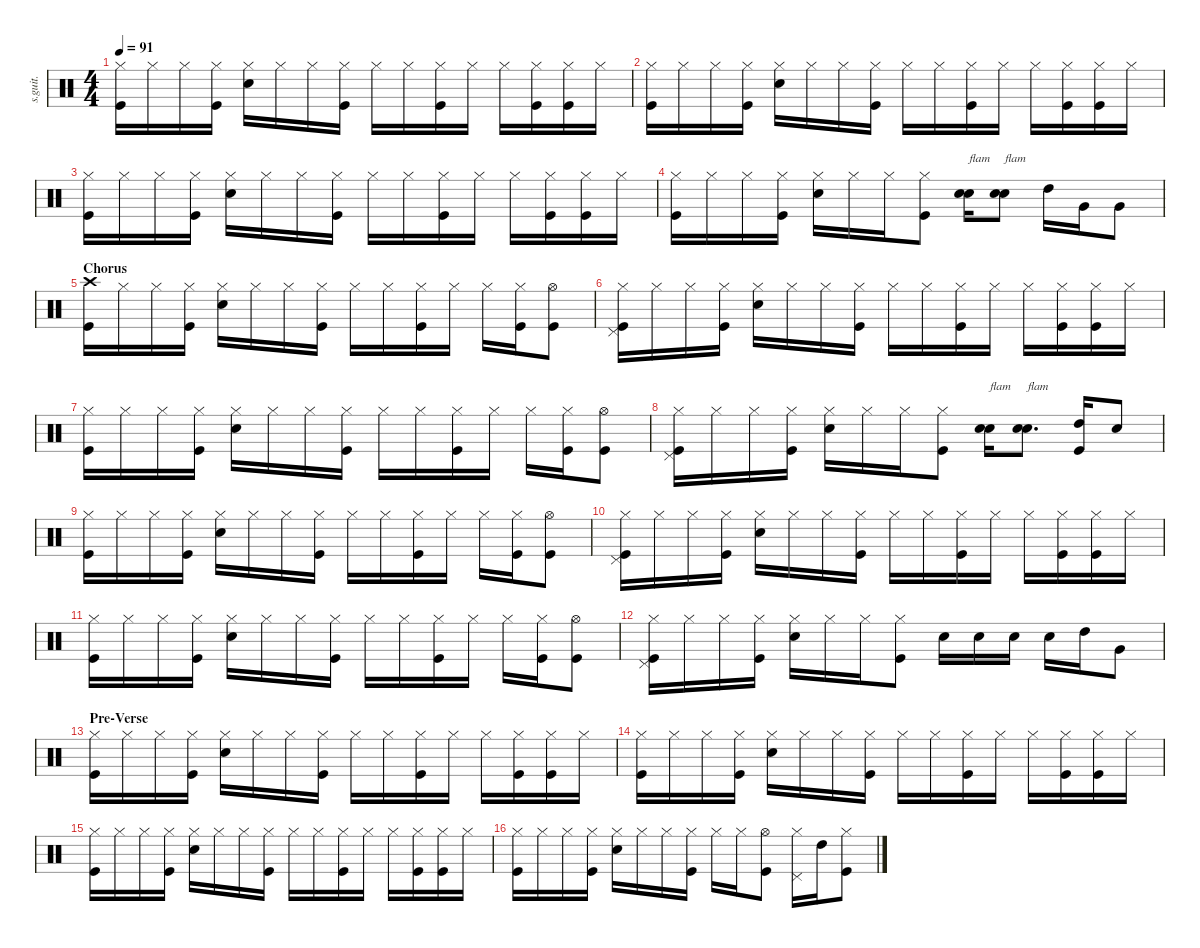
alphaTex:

\defaultSystemsLayout 4
\hideDynamics
\bracketExtendMode nobrackets
\track ("Chad" "s.guit.") {instrument percussion}
\staff {score}
\articulation defaults
\ts (4 4)
\tempo 91
\clef neutral
\ks c
("Hi-Hat (closed)" "Kick (hit)").16{dy f} "Hi-Hat (closed)".16 "Hi-Hat (closed)".16 ("Hi-Hat (closed)" "Kick (hit)").16 ("Hi-Hat (closed)" "Snare (hit) 2").16 "Hi-Hat (closed)".16 "Hi-Hat (closed)".16 ("Hi-Hat (closed)" "Kick (hit)").16 "Hi-Hat (closed)".16 "Hi-Hat (closed)".16 ("Hi-Hat (closed)" "Kick (hit)").16 "Hi-Hat (closed)".16 "Hi-Hat (closed)".16 ("Hi-Hat (closed)" "Kick (hit)").16 ("Hi-Hat (closed)" "Kick (hit)").16 "Hi-Hat (closed)".16 |
("Hi-Hat (closed)" "Kick (hit)").16 "Hi-Hat (closed)".16 "Hi-Hat (closed)".16 ("Hi-Hat (closed)" "Kick (hit)").16 ("Hi-Hat (closed)" "Snare (hit) 2").16 "Hi-Hat (closed)".16 "Hi-Hat (closed)".16 ("Hi-Hat (closed)" "Kick (hit)").16 "Hi-Hat (closed)".16 "Hi-Hat (closed)".16 ("Hi-Hat (closed)" "Kick (hit)").16 "Hi-Hat (closed)".16 "Hi-Hat (closed)".16 ("Hi-Hat (closed)" "Kick (hit)").16 ("Hi-Hat (closed)" "Kick (hit)").16 "Hi-Hat (closed)".16 |
("Hi-Hat (closed)" "Kick (hit)").16 "Hi-Hat (closed)".16 "Hi-Hat (closed)".16 ("Hi-Hat (closed)" "Kick (hit)").16 ("Hi-Hat (closed)" "Snare (hit) 2").16 "Hi-Hat (closed)".16 "Hi-Hat (closed)".16 ("Hi-Hat (closed)" "Kick (hit)").16 "Hi-Hat (closed)".16 "Hi-Hat (closed)".16 ("Hi-Hat (closed)" "Kick (hit)").16 "Hi-Hat (closed)".16 "Hi-Hat (closed)".16 ("Hi-Hat (closed)" "Kick (hit)").16 ("Hi-Hat (closed)" "Kick (hit)").16 "Hi-Hat (closed)".16 |
("Hi-Hat (closed)" "Kick (hit)").16 "Hi-Hat (closed)".16 "Hi-Hat (closed)".16 ("Hi-Hat (closed)" "Kick (hit)").16 ("Hi-Hat (closed)" "Snare (hit) 2").16 "Hi-Hat (closed)".16 "Hi-Hat (closed)".16 ("Hi-Hat (closed)" "Kick (hit)").8 ("Snare (hit) 2" "Snare (hit) 2").16{txt "flam"} ("Snare (hit) 2" "Snare (hit) 2").8{txt "flam"} "High Tom (hit)".16 "Very Low Tom (hit)".16 "Very Low Tom (hit)".8 |
\section ("" "Chorus")
("Crash high (hit)" "Kick (hit)").16 "Hi-Hat (closed)".16 "Hi-Hat (closed)".16 ("Hi-Hat (closed)" "Kick (hit)").16 ("Hi-Hat (closed)" "Snare (hit) 2").16 "Hi-Hat (closed)".16 "Hi-Hat (closed)".16 ("Hi-Hat (closed)" "Kick (hit)").16 "Hi-Hat (closed)".16 "Hi-Hat (closed)".16 ("Hi-Hat (closed)" "Kick (hit)").16 "Hi-Hat (closed)".16 "Hi-Hat (closed)".16 ("Hi-Hat (closed)" "Kick (hit)").16 ("Hi-Hat (open)" "Kick (hit)").8 |
("Hi-Hat (closed)" "Kick (hit)" "Pedal Hi-Hat (hit)").16 "Hi-Hat (closed)".16 "Hi-Hat (closed)".16 ("Hi-Hat (closed)" "Kick (hit)").16 ("Hi-Hat (closed)" "Snare (hit) 2").16 "Hi-Hat (closed)".16 "Hi-Hat (closed)".16 ("Hi-Hat (closed)" "Kick (hit)").16 "Hi-Hat (closed)".16 "Hi-Hat (closed)".16 ("Hi-Hat (closed)" "Kick (hit)").16 "Hi-Hat (closed)".16 "Hi-Hat (closed)".16 ("Hi-Hat (closed)" "Kick (hit)").16 ("Hi-Hat (closed)" "Kick (hit)").16 "Hi-Hat (closed)".16 |
("Hi-Hat (closed)" "Kick (hit)").16 "Hi-Hat (closed)".16 "Hi-Hat (closed)".16 ("Hi-Hat (closed)" "Kick (hit)").16 ("Hi-Hat (closed)" "Snare (hit) 2").16 "Hi-Hat (closed)".16 "Hi-Hat (closed)".16 ("Hi-Hat (closed)" "Kick (hit)").16 "Hi-Hat (closed)".16 "Hi-Hat (closed)".16 ("Hi-Hat (closed)" "Kick (hit)").16 "Hi-Hat (closed)".16 "Hi-Hat (closed)".16 ("Hi-Hat (closed)" "Kick (hit)").16 ("Hi-Hat (open)" "Kick (hit)").8 |
("Hi-Hat (closed)" "Kick (hit)" "Pedal Hi-Hat (hit)").16 "Hi-Hat (closed)".16 "Hi-Hat (closed)".16 ("Hi-Hat (closed)" "Kick (hit)").16 ("Hi-Hat (closed)" "Snare (hit) 2").16 "Hi-Hat (closed)".16 "Hi-Hat (closed)".16 ("Hi-Hat (closed)" "Kick (hit)").8 ("Snare (hit) 2" "Snare (hit) 2").16{txt "flam"} ("Snare (hit) 2" "Snare (hit) 2").8{d txt "flam"} ("High Tom (hit)" "Kick (hit)").16 "Snare (hit) 2".8 |
("Hi-Hat (closed)" "Kick (hit)").16 "Hi-Hat (closed)".16 "Hi-Hat (closed)".16 ("Hi-Hat (closed)" "Kick (hit)").16 ("Hi-Hat (closed)" "Snare (hit) 2").16 "Hi-Hat (closed)".16 "Hi-Hat (closed)".16 ("Hi-Hat (closed)" "Kick (hit)").16 "Hi-Hat (closed)".16 "Hi-Hat (closed)".16 ("Hi-Hat (closed)" "Kick (hit)").16 "Hi-Hat (closed)".16 "Hi-Hat (closed)".16 ("Hi-Hat (closed)" "Kick (hit)").16 ("Hi-Hat (open)" "Kick (hit)").8 |
("Hi-Hat (closed)" "Kick (hit)" "Pedal Hi-Hat (hit)").16 "Hi-Hat (closed)".16 "Hi-Hat (closed)".16 ("Hi-Hat (closed)" "Kick (hit)").16 ("Hi-Hat (closed)" "Snare (hit) 2").16 "Hi-Hat (closed)".16 "Hi-Hat (closed)".16 ("Hi-Hat (closed)" "Kick (hit)").16 "Hi-Hat (closed)".16 "Hi-Hat (closed)".16 ("Hi-Hat (closed)" "Kick (hit)").16 "Hi-Hat (closed)".16 "Hi-Hat (closed)".16 ("Hi-Hat (closed)" "Kick (hit)").16 ("Hi-Hat (closed)" "Kick (hit)").16 "Hi-Hat (closed)".16 |
("Hi-Hat (closed)" "Kick (hit)").16 "Hi-Hat (closed)".16 "Hi-Hat (closed)".16 ("Hi-Hat (closed)" "Kick (hit)").16 ("Hi-Hat (closed)" "Snare (hit) 2").16 "Hi-Hat (closed)".16 "Hi-Hat (closed)".16 ("Hi-Hat (closed)" "Kick (hit)").16 "Hi-Hat (closed)".16 "Hi-Hat (closed)".16 ("Hi-Hat (closed)" "Kick (hit)").16 "Hi-Hat (closed)".16 "Hi-Hat (closed)".16 ("Hi-Hat (closed)" "Kick (hit)").16 ("Hi-Hat (open)" "Kick (hit)").8 |
("Hi-Hat (closed)" "Kick (hit)" "Pedal Hi-Hat (hit)").16 "Hi-Hat (closed)".16 "Hi-Hat (closed)".16 ("Hi-Hat (closed)" "Kick (hit)").16 ("Hi-Hat (closed)" "Snare (hit) 2").16 "Hi-Hat (closed)".16 "Hi-Hat (closed)".16 ("Hi-Hat (closed)" "Kick (hit)").8 "Snare (hit) 2".16 "Snare (hit) 2".16 "Snare (hit) 2".16 "Snare (hit) 2".16 "High Tom (hit)".16 "Very Low Tom (hit)".8 |
\section ("" "Pre-Verse")
("Hi-Hat (closed)" "Kick (hit)").16 "Hi-Hat (closed)".16 "Hi-Hat (closed)".16 ("Hi-Hat (closed)" "Kick (hit)").16 ("Hi-Hat (closed)" "Snare (hit) 2").16 "Hi-Hat (closed)".16 "Hi-Hat (closed)".16 ("Hi-Hat (closed)" "Kick (hit)").16 "Hi-Hat (closed)".16 "Hi-Hat (closed)".16 ("Hi-Hat (closed)" "Kick (hit)").16 "Hi-Hat (closed)".16 "Hi-Hat (closed)".16 ("Hi-Hat (closed)" "Kick (hit)").16 ("Hi-Hat (closed)" "Kick (hit)").16 "Hi-Hat (closed)".16 |
("Hi-Hat (closed)" "Kick (hit)").16 "Hi-Hat (closed)".16 "Hi-Hat (closed)".16 ("Hi-Hat (closed)" "Kick (hit)").16 ("Hi-Hat (closed)" "Snare (hit) 2").16 "Hi-Hat (closed)".16 "Hi-Hat (closed)".16 ("Hi-Hat (closed)" "Kick (hit)").16 "Hi-Hat (closed)".16 "Hi-Hat (closed)".16 ("Hi-Hat (closed)" "Kick (hit)").16 "Hi-Hat (closed)".16 "Hi-Hat (closed)".16 ("Hi-Hat (closed)" "Kick (hit)").16 ("Hi-Hat (closed)" "Kick (hit)").16 "Hi-Hat (closed)".16 |
("Hi-Hat (closed)" "Kick (hit)").16 "Hi-Hat (closed)".16 "Hi-Hat (closed)".16 ("Hi-Hat (closed)" "Kick (hit)").16 ("Hi-Hat (closed)" "Snare (hit) 2").16 "Hi-Hat (closed)".16 "Hi-Hat (closed)".16 ("Hi-Hat (closed)" "Kick (hit)").16 "Hi-Hat (closed)".16 "Hi-Hat (closed)".16 ("Hi-Hat (closed)" "Kick (hit)").16 "Hi-Hat (closed)".16 "Hi-Hat (closed)".16 ("Hi-Hat (closed)" "Kick (hit)").16 ("Hi-Hat (closed)" "Kick (hit)").16 "Hi-Hat (closed)".16 |
("Hi-Hat (closed)" "Kick (hit)").16 "Hi-Hat (closed)".16 "Hi-Hat (closed)".16 ("Hi-Hat (closed)" "Kick (hit)").16 ("Hi-Hat (closed)" "Snare (hit) 2").16 "Hi-Hat (closed)".16 "Hi-Hat (closed)".16 ("Hi-Hat (closed)" "Kick (hit)").16 "Hi-Hat (closed)".16 "Hi-Hat (closed)".16 ("Hi-Hat (open)" "Kick (hit)").8 ("Hi-Hat (closed)" "Pedal Hi-Hat (hit)").16 "High Tom (hit)".16 ("Hi-Hat (closed)" "Kick (hit)").8
